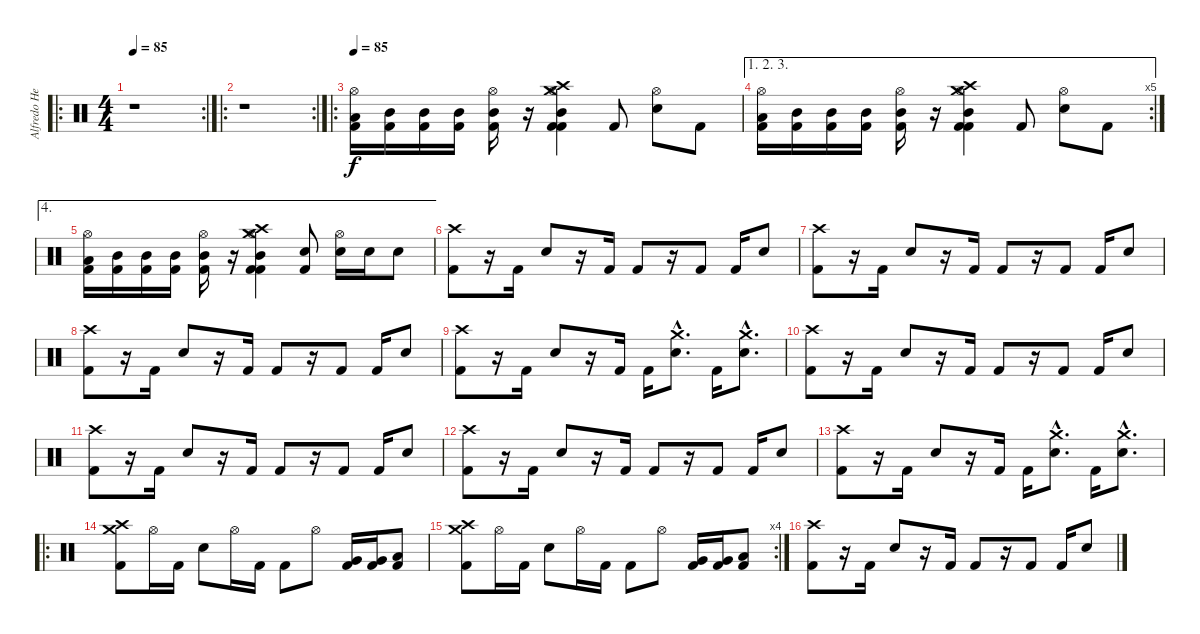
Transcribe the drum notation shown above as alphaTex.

\track ("Alfredo Hernández" "Alfredo He") {instrument percussion}
\staff {score}
\articulation defaults
\ro
\rc 2
\ts (4 4)
\tempo 85
\clef neutral
\ks c
r.1{dy f} |
\ro
\rc 2
r.1 |
\ro
\tempo 85
("Hi-Hat (open)" "Low Tom (hit)" "Kick (hit) 2").16 ("Mid Tom (hit)" "Kick (hit) 2").16 ("Mid Tom (hit)" "Kick (hit) 2").16 ("Mid Tom (hit)" "Kick (hit) 2").16 ("Hi-Hat (open)" "Mid Tom (hit)" "Kick (hit) 2").16 r.16 ("Crash medium (hit)" "Hi-Hat (open)" "Crash high (hit)" "Mid Tom (hit)" "Kick (hit) 2" "Kick (hit) 2").4 "Kick (hit) 2".8 ("Hi-Hat (open)" "Electric Snare (hit)").8 "Kick (hit) 2".8 |
\ae (1 2 3)
\rc 5
("Hi-Hat (open)" "Low Tom (hit)" "Kick (hit) 2").16 ("Mid Tom (hit)" "Kick (hit) 2").16 ("Mid Tom (hit)" "Kick (hit) 2").16 ("Mid Tom (hit)" "Kick (hit) 2").16 ("Hi-Hat (open)" "Mid Tom (hit)" "Kick (hit) 2").16 r.16 ("Crash medium (hit)" "Hi-Hat (open)" "Crash high (hit)" "Mid Tom (hit)" "Kick (hit) 2" "Kick (hit) 2").4 "Kick (hit) 2".8 ("Hi-Hat (open)" "Electric Snare (hit)").8 "Kick (hit) 2".8 |
\ae 4
("Hi-Hat (open)" "Low Tom (hit)" "Kick (hit) 2").16 ("Mid Tom (hit)" "Kick (hit) 2").16 ("Mid Tom (hit)" "Kick (hit) 2").16 ("Mid Tom (hit)" "Kick (hit) 2").16 ("Hi-Hat (open)" "Mid Tom (hit)" "Kick (hit) 2").16 r.16 ("Crash medium (hit)" "Hi-Hat (open)" "Crash high (hit)" "Mid Tom (hit)" "Kick (hit) 2" "Kick (hit) 2").4 ("Electric Snare (hit)" "Kick (hit) 2").8 ("Hi-Hat (open)" "Electric Snare (hit)").16 "Electric Snare (hit)".16 "Electric Snare (hit)".8 |
("Crash high (hit)" "Kick (hit) 2").8 r.16 "Kick (hit) 2".16 "Electric Snare (hit)".8 r.16 "Kick (hit) 2".16 "Kick (hit) 2".8 r.16 "Kick (hit) 2".8 "Kick (hit) 2".16 "Electric Snare (hit)".8 |
("Crash high (hit)" "Kick (hit) 2").8 r.16 "Kick (hit) 2".16 "Electric Snare (hit)".8 r.16 "Kick (hit) 2".16 "Kick (hit) 2".8 r.16 "Kick (hit) 2".8 "Kick (hit) 2".16 "Electric Snare (hit)".8 |
("Crash high (hit)" "Kick (hit) 2").8 r.16 "Kick (hit) 2".16 "Electric Snare (hit)".8 r.16 "Kick (hit) 2".16 "Kick (hit) 2".8 r.16 "Kick (hit) 2".8 "Kick (hit) 2".16 "Electric Snare (hit)".8 |
("Crash high (hit)" "Kick (hit) 2").8 r.16 "Kick (hit) 2".16 "Electric Snare (hit)".8 r.16 "Kick (hit) 2".16 "Kick (hit) 2".16 ("Crash medium (hit)"{hac} "Electric Snare (hit)"{hac}).8{d} "Kick (hit) 2".16 ("Crash medium (hit)"{hac} "Electric Snare (hit)"{hac}).8{d} |
("Crash high (hit)" "Kick (hit) 2").8 r.16 "Kick (hit) 2".16 "Electric Snare (hit)".8 r.16 "Kick (hit) 2".16 "Kick (hit) 2".8 r.16 "Kick (hit) 2".8 "Kick (hit) 2".16 "Electric Snare (hit)".8 |
("Crash high (hit)" "Kick (hit) 2").8 r.16 "Kick (hit) 2".16 "Electric Snare (hit)".8 r.16 "Kick (hit) 2".16 "Kick (hit) 2".8 r.16 "Kick (hit) 2".8 "Kick (hit) 2".16 "Electric Snare (hit)".8 |
("Crash high (hit)" "Kick (hit) 2").8 r.16 "Kick (hit) 2".16 "Electric Snare (hit)".8 r.16 "Kick (hit) 2".16 "Kick (hit) 2".8 r.16 "Kick (hit) 2".8 "Kick (hit) 2".16 "Electric Snare (hit)".8 |
("Crash high (hit)" "Kick (hit) 2").8 r.16 "Kick (hit) 2".16 "Electric Snare (hit)".8 r.16 "Kick (hit) 2".16 "Kick (hit) 2".16 ("Crash medium (hit)"{hac} "Electric Snare (hit)"{hac}).8{d} "Kick (hit) 2".16 ("Crash medium (hit)"{hac} "Electric Snare (hit)"{hac}).8{d} |
\ro
("Crash high (hit)" "Crash medium (hit)" "Kick (hit) 2").8 "Hi-Hat (open)".16 "Kick (hit) 2".16 "Electric Snare (hit)".8 "Hi-Hat (open)".16 "Kick (hit) 2".16 "Kick (hit) 2".8 "Hi-Hat (open)".8 ("Very Low Tom (hit)" "Kick (hit) 2").16 ("Very Low Tom (hit)" "Kick (hit) 2").16 ("Low Floor Tom (hit)" "Kick (hit) 2").8 |
\rc 4
("Crash high (hit)" "Crash medium (hit)" "Kick (hit) 2").8 "Hi-Hat (open)".16 "Kick (hit) 2".16 "Electric Snare (hit)".8 "Hi-Hat (open)".16 "Kick (hit) 2".16 "Kick (hit) 2".8 "Hi-Hat (open)".8 ("Very Low Tom (hit)" "Kick (hit) 2").16 ("Very Low Tom (hit)" "Kick (hit) 2").16 ("Low Floor Tom (hit)" "Kick (hit) 2").8 |
("Crash high (hit)" "Kick (hit) 2").8 r.16 "Kick (hit) 2".16 "Electric Snare (hit)".8 r.16 "Kick (hit) 2".16 "Kick (hit) 2".8 r.16 "Kick (hit) 2".8 "Kick (hit) 2".16 "Electric Snare (hit)".8
